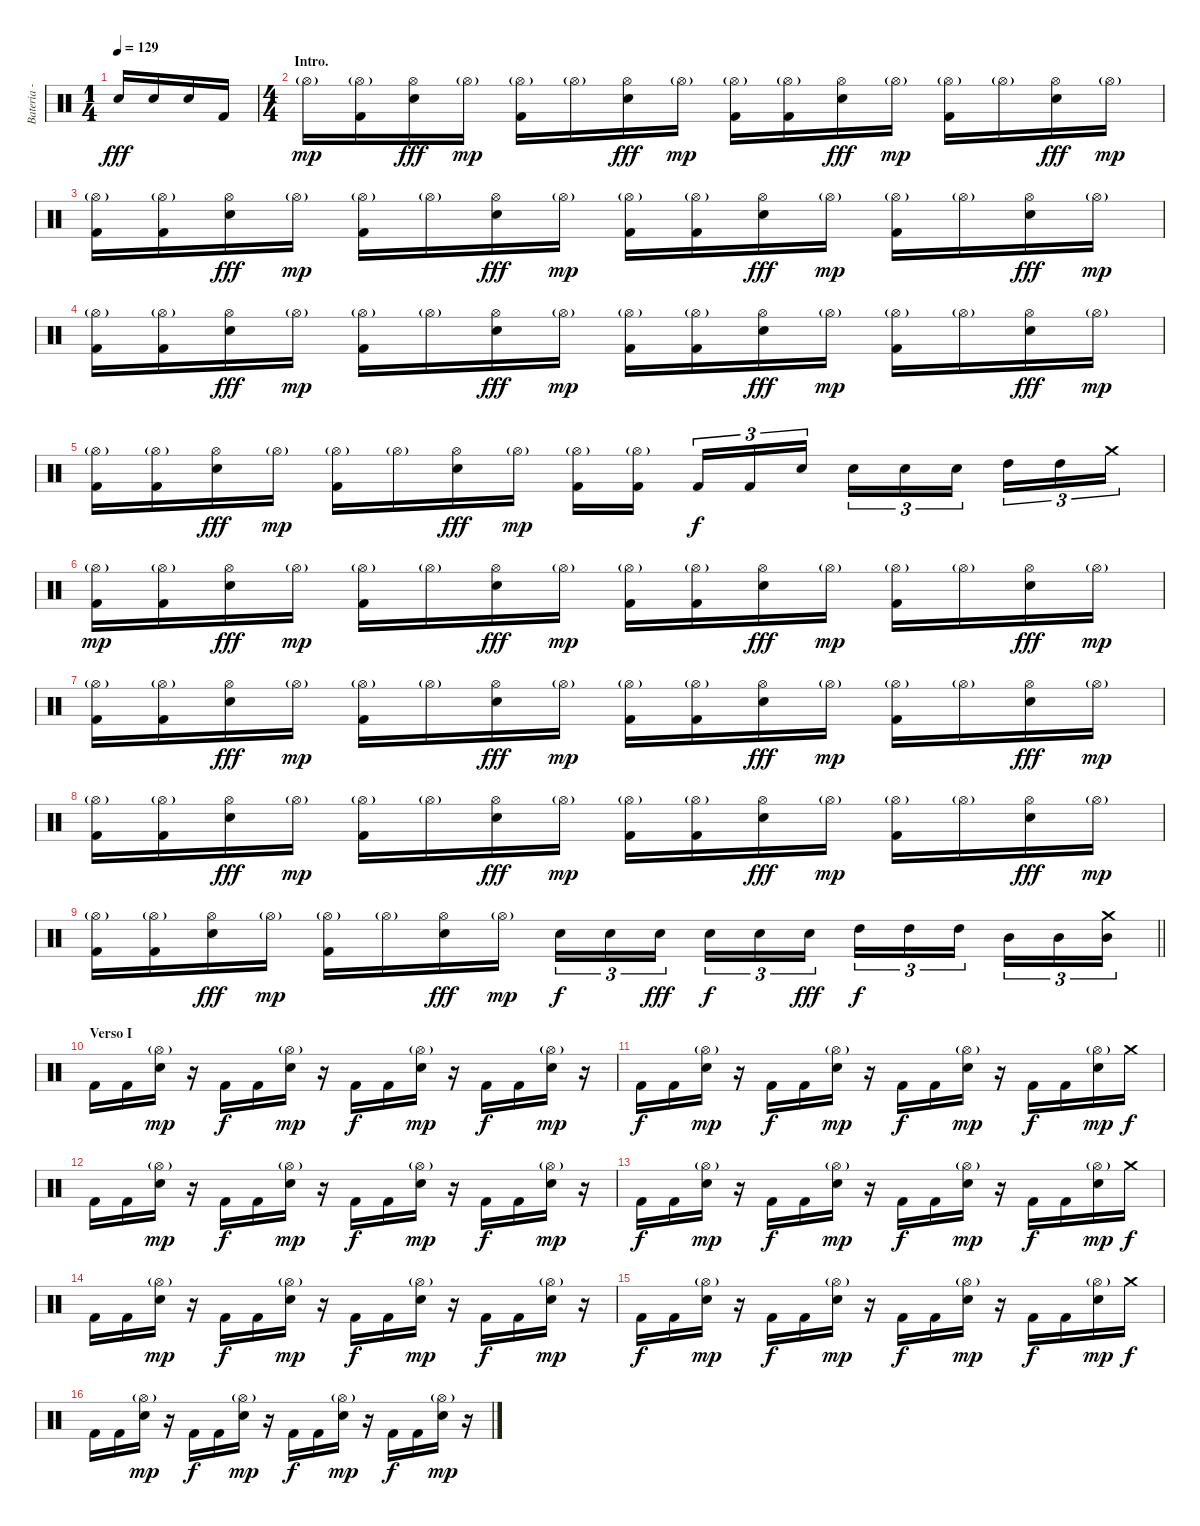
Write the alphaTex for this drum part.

\track ("Bateria - Larzon" "Bateria - ") {instrument percussion}
\staff {score}
\articulation defaults
\ts (1 4)
\tempo 129
\clef neutral
\ks c "Electric Snare (hit)".16{dy fff} "Electric Snare (hit)".16 "Electric Snare (hit)".16 "Kick (hit) 2".16
|
\ts (4 4)
\section ("" "Intro.")
"Hi-Hat (open)"{g}.16{dy mp} ("Kick (hit) 2" "Hi-Hat (open)"{g}).16 ("Electric Snare (hit)" "Hi-Hat (open)").16{dy fff} "Hi-Hat (open)"{g}.16{dy mp} ("Kick (hit) 2" "Hi-Hat (open)"{g}).16 "Hi-Hat (open)"{g}.16 ("Electric Snare (hit)" "Hi-Hat (open)").16{dy fff} "Hi-Hat (open)"{g}.16{dy mp} ("Kick (hit) 2" "Hi-Hat (open)"{g}).16 ("Kick (hit) 2" "Hi-Hat (open)"{g}).16 ("Electric Snare (hit)" "Hi-Hat (open)").16{dy fff} "Hi-Hat (open)"{g}.16{dy mp} ("Kick (hit) 2" "Hi-Hat (open)"{g}).16 "Hi-Hat (open)"{g}.16 ("Electric Snare (hit)" "Hi-Hat (open)").16{dy fff} "Hi-Hat (open)"{g}.16{dy mp} |
("Kick (hit) 2" "Hi-Hat (open)"{g}).16 ("Kick (hit) 2" "Hi-Hat (open)"{g}).16 ("Electric Snare (hit)" "Hi-Hat (open)").16{dy fff} "Hi-Hat (open)"{g}.16{dy mp} ("Kick (hit) 2" "Hi-Hat (open)"{g}).16 "Hi-Hat (open)"{g}.16 ("Electric Snare (hit)" "Hi-Hat (open)").16{dy fff} "Hi-Hat (open)"{g}.16{dy mp} ("Kick (hit) 2" "Hi-Hat (open)"{g}).16 ("Kick (hit) 2" "Hi-Hat (open)"{g}).16 ("Electric Snare (hit)" "Hi-Hat (open)").16{dy fff} "Hi-Hat (open)"{g}.16{dy mp} ("Kick (hit) 2" "Hi-Hat (open)"{g}).16 "Hi-Hat (open)"{g}.16 ("Electric Snare (hit)" "Hi-Hat (open)").16{dy fff} "Hi-Hat (open)"{g}.16{dy mp} |
("Kick (hit) 2" "Hi-Hat (open)"{g}).16 ("Kick (hit) 2" "Hi-Hat (open)"{g}).16 ("Electric Snare (hit)" "Hi-Hat (open)").16{dy fff} "Hi-Hat (open)"{g}.16{dy mp} ("Kick (hit) 2" "Hi-Hat (open)"{g}).16 "Hi-Hat (open)"{g}.16 ("Electric Snare (hit)" "Hi-Hat (open)").16{dy fff} "Hi-Hat (open)"{g}.16{dy mp} ("Kick (hit) 2" "Hi-Hat (open)"{g}).16 ("Kick (hit) 2" "Hi-Hat (open)"{g}).16 ("Electric Snare (hit)" "Hi-Hat (open)").16{dy fff} "Hi-Hat (open)"{g}.16{dy mp} ("Kick (hit) 2" "Hi-Hat (open)"{g}).16 "Hi-Hat (open)"{g}.16 ("Electric Snare (hit)" "Hi-Hat (open)").16{dy fff} "Hi-Hat (open)"{g}.16{dy mp} |
("Kick (hit) 2" "Hi-Hat (open)"{g}).16 ("Kick (hit) 2" "Hi-Hat (open)"{g}).16 ("Electric Snare (hit)" "Hi-Hat (open)").16{dy fff} "Hi-Hat (open)"{g}.16{dy mp} ("Kick (hit) 2" "Hi-Hat (open)"{g}).16 "Hi-Hat (open)"{g}.16 ("Electric Snare (hit)" "Hi-Hat (open)").16{dy fff} "Hi-Hat (open)"{g}.16{dy mp} ("Kick (hit) 2" "Hi-Hat (open)"{g}).16 ("Kick (hit) 2" "Hi-Hat (open)"{g}).16 "Kick (hit) 2".16{tu (3 2) dy f} "Kick (hit) 2".16{tu (3 2)} "Electric Snare (hit)".16{tu (3 2)} "Electric Snare (hit)".16{tu (3 2)} "Electric Snare (hit)".16{tu (3 2)} "Electric Snare (hit)".16{tu (3 2)} "High Tom (hit)".16{tu (3 2)} "High Tom (hit)".16{tu (3 2)} "Crash medium (hit)".16{tu (3 2)} |
("Kick (hit) 2" "Hi-Hat (open)"{g}).16{dy mp} ("Kick (hit) 2" "Hi-Hat (open)"{g}).16 ("Electric Snare (hit)" "Hi-Hat (open)").16{dy fff} "Hi-Hat (open)"{g}.16{dy mp} ("Kick (hit) 2" "Hi-Hat (open)"{g}).16 "Hi-Hat (open)"{g}.16 ("Electric Snare (hit)" "Hi-Hat (open)").16{dy fff} "Hi-Hat (open)"{g}.16{dy mp} ("Kick (hit) 2" "Hi-Hat (open)"{g}).16 ("Kick (hit) 2" "Hi-Hat (open)"{g}).16 ("Electric Snare (hit)" "Hi-Hat (open)").16{dy fff} "Hi-Hat (open)"{g}.16{dy mp} ("Kick (hit) 2" "Hi-Hat (open)"{g}).16 "Hi-Hat (open)"{g}.16 ("Electric Snare (hit)" "Hi-Hat (open)").16{dy fff} "Hi-Hat (open)"{g}.16{dy mp} |
("Kick (hit) 2" "Hi-Hat (open)"{g}).16 ("Kick (hit) 2" "Hi-Hat (open)"{g}).16 ("Electric Snare (hit)" "Hi-Hat (open)").16{dy fff} "Hi-Hat (open)"{g}.16{dy mp} ("Kick (hit) 2" "Hi-Hat (open)"{g}).16 "Hi-Hat (open)"{g}.16 ("Electric Snare (hit)" "Hi-Hat (open)").16{dy fff} "Hi-Hat (open)"{g}.16{dy mp} ("Kick (hit) 2" "Hi-Hat (open)"{g}).16 ("Kick (hit) 2" "Hi-Hat (open)"{g}).16 ("Electric Snare (hit)" "Hi-Hat (open)").16{dy fff} "Hi-Hat (open)"{g}.16{dy mp} ("Kick (hit) 2" "Hi-Hat (open)"{g}).16 "Hi-Hat (open)"{g}.16 ("Electric Snare (hit)" "Hi-Hat (open)").16{dy fff} "Hi-Hat (open)"{g}.16{dy mp} |
("Kick (hit) 2" "Hi-Hat (open)"{g}).16 ("Kick (hit) 2" "Hi-Hat (open)"{g}).16 ("Electric Snare (hit)" "Hi-Hat (open)").16{dy fff} "Hi-Hat (open)"{g}.16{dy mp} ("Kick (hit) 2" "Hi-Hat (open)"{g}).16 "Hi-Hat (open)"{g}.16 ("Electric Snare (hit)" "Hi-Hat (open)").16{dy fff} "Hi-Hat (open)"{g}.16{dy mp} ("Kick (hit) 2" "Hi-Hat (open)"{g}).16 ("Kick (hit) 2" "Hi-Hat (open)"{g}).16 ("Electric Snare (hit)" "Hi-Hat (open)").16{dy fff} "Hi-Hat (open)"{g}.16{dy mp} ("Kick (hit) 2" "Hi-Hat (open)"{g}).16 "Hi-Hat (open)"{g}.16 ("Electric Snare (hit)" "Hi-Hat (open)").16{dy fff} "Hi-Hat (open)"{g}.16{dy mp} |
\barLineRight lightlight
("Kick (hit) 2" "Hi-Hat (open)"{g}).16 ("Kick (hit) 2" "Hi-Hat (open)"{g}).16 ("Electric Snare (hit)" "Hi-Hat (open)").16{dy fff} "Hi-Hat (open)"{g}.16{dy mp} ("Kick (hit) 2" "Hi-Hat (open)"{g}).16 "Hi-Hat (open)"{g}.16 ("Electric Snare (hit)" "Hi-Hat (open)").16{dy fff} "Hi-Hat (open)"{g}.16{dy mp} "Electric Snare (hit)".16{tu (3 2) dy f} "Electric Snare (hit)".16{tu (3 2)} "Electric Snare (hit)".16{tu (3 2) dy fff} "Electric Snare (hit)".16{tu (3 2) dy f} "Electric Snare (hit)".16{tu (3 2)} "Electric Snare (hit)".16{tu (3 2) dy fff} "High Tom (hit)".16{tu (3 2) dy f} "High Tom (hit)".16{tu (3 2)} "High Tom (hit)".16{tu (3 2)} "Mid Tom (hit)".16{tu (3 2)} "Mid Tom (hit)".16{tu (3 2)} ("Crash medium (hit)" "Mid Tom (hit)").16{tu (3 2)} |
\section ("" "Verso I")
"Kick (hit) 2".16 "Kick (hit) 2".16 ("Electric Snare (hit)" "Hi-Hat (open)"{g}).16{dy mp} r.16 "Kick (hit) 2".16{dy f} "Kick (hit) 2".16 ("Electric Snare (hit)" "Hi-Hat (open)"{g}).16{dy mp} r.16 "Kick (hit) 2".16{dy f} "Kick (hit) 2".16 ("Electric Snare (hit)" "Hi-Hat (open)"{g}).16{dy mp} r.16 "Kick (hit) 2".16{dy f} "Kick (hit) 2".16 ("Electric Snare (hit)" "Hi-Hat (open)"{g}).16{dy mp} r.16 |
"Kick (hit) 2".16{dy f} "Kick (hit) 2".16 ("Electric Snare (hit)" "Hi-Hat (open)"{g}).16{dy mp} r.16 "Kick (hit) 2".16{dy f} "Kick (hit) 2".16 ("Electric Snare (hit)" "Hi-Hat (open)"{g}).16{dy mp} r.16 "Kick (hit) 2".16{dy f} "Kick (hit) 2".16 ("Electric Snare (hit)" "Hi-Hat (open)"{g}).16{dy mp} r.16 "Kick (hit) 2".16{dy f} "Kick (hit) 2".16 ("Electric Snare (hit)" "Hi-Hat (open)"{g}).16{dy mp} "Crash medium (hit)".16{dy f} |
"Kick (hit) 2".16 "Kick (hit) 2".16 ("Electric Snare (hit)" "Hi-Hat (open)"{g}).16{dy mp} r.16 "Kick (hit) 2".16{dy f} "Kick (hit) 2".16 ("Electric Snare (hit)" "Hi-Hat (open)"{g}).16{dy mp} r.16 "Kick (hit) 2".16{dy f} "Kick (hit) 2".16 ("Electric Snare (hit)" "Hi-Hat (open)"{g}).16{dy mp} r.16 "Kick (hit) 2".16{dy f} "Kick (hit) 2".16 ("Electric Snare (hit)" "Hi-Hat (open)"{g}).16{dy mp} r.16 |
"Kick (hit) 2".16{dy f} "Kick (hit) 2".16 ("Electric Snare (hit)" "Hi-Hat (open)"{g}).16{dy mp} r.16 "Kick (hit) 2".16{dy f} "Kick (hit) 2".16 ("Electric Snare (hit)" "Hi-Hat (open)"{g}).16{dy mp} r.16 "Kick (hit) 2".16{dy f} "Kick (hit) 2".16 ("Electric Snare (hit)" "Hi-Hat (open)"{g}).16{dy mp} r.16 "Kick (hit) 2".16{dy f} "Kick (hit) 2".16 ("Electric Snare (hit)" "Hi-Hat (open)"{g}).16{dy mp} "Crash medium (hit)".16{dy f} |
"Kick (hit) 2".16 "Kick (hit) 2".16 ("Electric Snare (hit)" "Hi-Hat (open)"{g}).16{dy mp} r.16 "Kick (hit) 2".16{dy f} "Kick (hit) 2".16 ("Electric Snare (hit)" "Hi-Hat (open)"{g}).16{dy mp} r.16 "Kick (hit) 2".16{dy f} "Kick (hit) 2".16 ("Electric Snare (hit)" "Hi-Hat (open)"{g}).16{dy mp} r.16 "Kick (hit) 2".16{dy f} "Kick (hit) 2".16 ("Electric Snare (hit)" "Hi-Hat (open)"{g}).16{dy mp} r.16 |
"Kick (hit) 2".16{dy f} "Kick (hit) 2".16 ("Electric Snare (hit)" "Hi-Hat (open)"{g}).16{dy mp} r.16 "Kick (hit) 2".16{dy f} "Kick (hit) 2".16 ("Electric Snare (hit)" "Hi-Hat (open)"{g}).16{dy mp} r.16 "Kick (hit) 2".16{dy f} "Kick (hit) 2".16 ("Electric Snare (hit)" "Hi-Hat (open)"{g}).16{dy mp} r.16 "Kick (hit) 2".16{dy f} "Kick (hit) 2".16 ("Electric Snare (hit)" "Hi-Hat (open)"{g}).16{dy mp} "Crash medium (hit)".16{dy f} |
"Kick (hit) 2".16 "Kick (hit) 2".16 ("Electric Snare (hit)" "Hi-Hat (open)"{g}).16{dy mp} r.16 "Kick (hit) 2".16{dy f} "Kick (hit) 2".16 ("Electric Snare (hit)" "Hi-Hat (open)"{g}).16{dy mp} r.16 "Kick (hit) 2".16{dy f} "Kick (hit) 2".16 ("Electric Snare (hit)" "Hi-Hat (open)"{g}).16{dy mp} r.16 "Kick (hit) 2".16{dy f} "Kick (hit) 2".16 ("Electric Snare (hit)" "Hi-Hat (open)"{g}).16{dy mp} r.16
